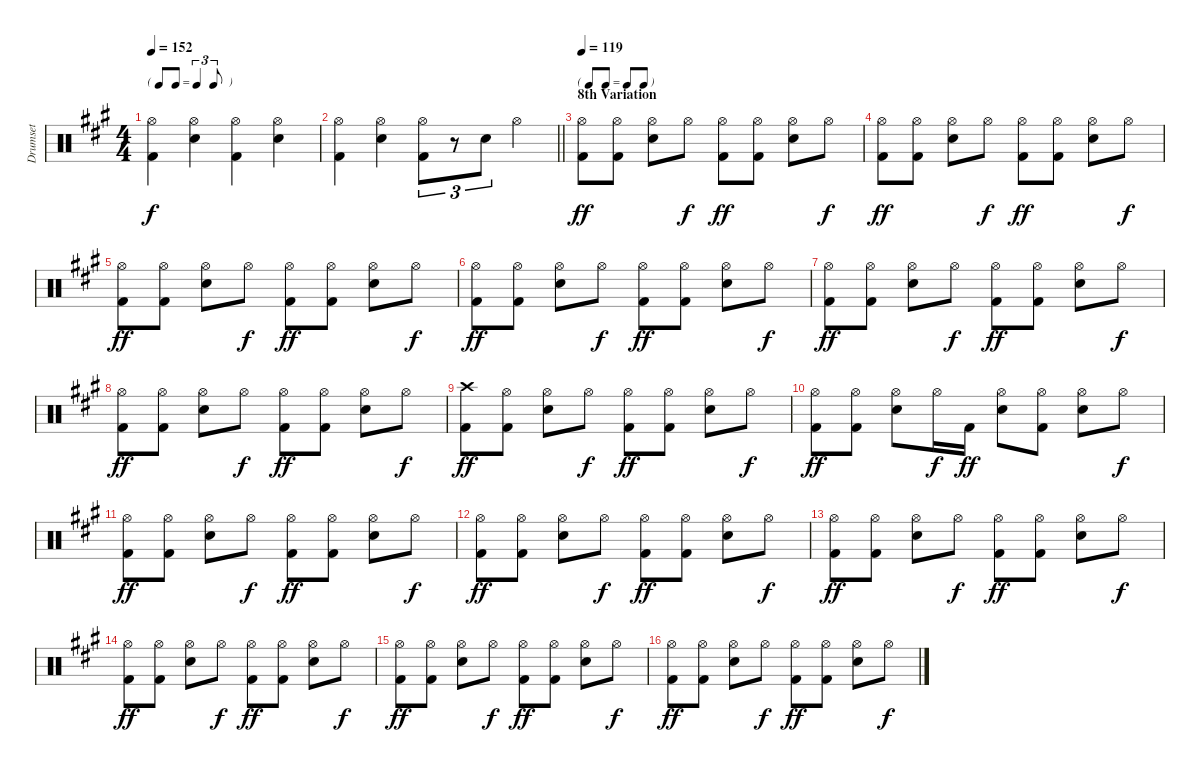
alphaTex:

\track ("Drumset" "Drumset") {instrument percussion}
\staff {score}
\articulation defaults
\ts (4 4)
\tf triplet8th
\tempo 152
\clef neutral
\ks a
("Hi-Hat (open)" "Kick (hit) 2").4{dy f} ("Hi-Hat (open)" "Electric Snare (hit)").4 ("Hi-Hat (open)" "Kick (hit) 2").4 ("Hi-Hat (open)" "Electric Snare (hit)").4 |
\barLineRight lightlight
("Hi-Hat (open)" "Kick (hit) 2").4 ("Hi-Hat (open)" "Electric Snare (hit)").4 ("Hi-Hat (open)" "Kick (hit) 2").8{tu (3 2)} r.8{tu (3 2)} "Electric Snare (hit)".8{tu (3 2)} "Hi-Hat (open)".4 |
\tf none
\section ("" "8th Variation")
\tempo 119
("Hi-Hat (open)" "Kick (hit) 2").8{dy ff} ("Hi-Hat (open)" "Kick (hit) 2").8 ("Hi-Hat (open)" "Snare (hit) 2").8 "Hi-Hat (open)".8{dy f} ("Hi-Hat (open)" "Kick (hit) 2").8{dy ff} ("Hi-Hat (open)" "Kick (hit) 2").8 ("Hi-Hat (open)" "Snare (hit) 2").8 "Hi-Hat (open)".8{dy f} |
("Hi-Hat (open)" "Kick (hit) 2").8{dy ff} ("Hi-Hat (open)" "Kick (hit) 2").8 ("Hi-Hat (open)" "Snare (hit) 2").8 "Hi-Hat (open)".8{dy f} ("Hi-Hat (open)" "Kick (hit) 2").8{dy ff} ("Hi-Hat (open)" "Kick (hit) 2").8 ("Hi-Hat (open)" "Snare (hit) 2").8 "Hi-Hat (open)".8{dy f} |
("Hi-Hat (open)" "Kick (hit) 2").8{dy ff} ("Hi-Hat (open)" "Kick (hit) 2").8 ("Hi-Hat (open)" "Snare (hit) 2").8 "Hi-Hat (open)".8{dy f} ("Hi-Hat (open)" "Kick (hit) 2").8{dy ff} ("Hi-Hat (open)" "Kick (hit) 2").8 ("Hi-Hat (open)" "Snare (hit) 2").8 "Hi-Hat (open)".8{dy f} |
("Hi-Hat (open)" "Kick (hit) 2").8{dy ff} ("Hi-Hat (open)" "Kick (hit) 2").8 ("Hi-Hat (open)" "Snare (hit) 2").8 "Hi-Hat (open)".8{dy f} ("Hi-Hat (open)" "Kick (hit) 2").8{dy ff} ("Hi-Hat (open)" "Kick (hit) 2").8 ("Hi-Hat (open)" "Snare (hit) 2").8 "Hi-Hat (open)".8{dy f} |
("Hi-Hat (open)" "Kick (hit) 2").8{dy ff} ("Hi-Hat (open)" "Kick (hit) 2").8 ("Hi-Hat (open)" "Snare (hit) 2").8 "Hi-Hat (open)".8{dy f} ("Hi-Hat (open)" "Kick (hit) 2").8{dy ff} ("Hi-Hat (open)" "Kick (hit) 2").8 ("Hi-Hat (open)" "Snare (hit) 2").8 "Hi-Hat (open)".8{dy f} |
("Hi-Hat (open)" "Kick (hit) 2").8{dy ff} ("Hi-Hat (open)" "Kick (hit) 2").8 ("Hi-Hat (open)" "Snare (hit) 2").8 "Hi-Hat (open)".8{dy f} ("Hi-Hat (open)" "Kick (hit) 2").8{dy ff} ("Hi-Hat (open)" "Kick (hit) 2").8 ("Hi-Hat (open)" "Snare (hit) 2").8 "Hi-Hat (open)".8{dy f} |
("Crash high (hit)" "Kick (hit) 2").8{dy ff} ("Hi-Hat (open)" "Kick (hit) 2").8 ("Hi-Hat (open)" "Snare (hit) 2").8 "Hi-Hat (open)".8{dy f} ("Hi-Hat (open)" "Kick (hit) 2").8{dy ff} ("Hi-Hat (open)" "Kick (hit) 2").8 ("Hi-Hat (open)" "Snare (hit) 2").8 "Hi-Hat (open)".8{dy f} |
("Hi-Hat (open)" "Kick (hit) 2").8{dy ff} ("Hi-Hat (open)" "Kick (hit) 2").8 ("Hi-Hat (open)" "Snare (hit) 2").8 "Hi-Hat (open)".16{dy f} "Kick (hit) 2".16{dy ff} ("Hi-Hat (open)" "Snare (hit) 2").8 ("Hi-Hat (open)" "Kick (hit) 2").8 ("Hi-Hat (open)" "Snare (hit) 2").8 "Hi-Hat (open)".8{dy f} |
("Hi-Hat (open)" "Kick (hit) 2").8{dy ff} ("Hi-Hat (open)" "Kick (hit) 2").8 ("Hi-Hat (open)" "Snare (hit) 2").8 "Hi-Hat (open)".8{dy f} ("Hi-Hat (open)" "Kick (hit) 2").8{dy ff} ("Hi-Hat (open)" "Kick (hit) 2").8 ("Hi-Hat (open)" "Snare (hit) 2").8 "Hi-Hat (open)".8{dy f} |
("Hi-Hat (open)" "Kick (hit) 2").8{dy ff} ("Hi-Hat (open)" "Kick (hit) 2").8 ("Hi-Hat (open)" "Snare (hit) 2").8 "Hi-Hat (open)".8{dy f} ("Hi-Hat (open)" "Kick (hit) 2").8{dy ff} ("Hi-Hat (open)" "Kick (hit) 2").8 ("Hi-Hat (open)" "Snare (hit) 2").8 "Hi-Hat (open)".8{dy f} |
("Hi-Hat (open)" "Kick (hit) 2").8{dy ff} ("Hi-Hat (open)" "Kick (hit) 2").8 ("Hi-Hat (open)" "Snare (hit) 2").8 "Hi-Hat (open)".8{dy f} ("Hi-Hat (open)" "Kick (hit) 2").8{dy ff} ("Hi-Hat (open)" "Kick (hit) 2").8 ("Hi-Hat (open)" "Snare (hit) 2").8 "Hi-Hat (open)".8{dy f} |
("Hi-Hat (open)" "Kick (hit) 2").8{dy ff} ("Hi-Hat (open)" "Kick (hit) 2").8 ("Hi-Hat (open)" "Snare (hit) 2").8 "Hi-Hat (open)".8{dy f} ("Hi-Hat (open)" "Kick (hit) 2").8{dy ff} ("Hi-Hat (open)" "Kick (hit) 2").8 ("Hi-Hat (open)" "Snare (hit) 2").8 "Hi-Hat (open)".8{dy f} |
("Hi-Hat (open)" "Kick (hit) 2").8{dy ff} ("Hi-Hat (open)" "Kick (hit) 2").8 ("Hi-Hat (open)" "Snare (hit) 2").8 "Hi-Hat (open)".8{dy f} ("Hi-Hat (open)" "Kick (hit) 2").8{dy ff} ("Hi-Hat (open)" "Kick (hit) 2").8 ("Hi-Hat (open)" "Snare (hit) 2").8 "Hi-Hat (open)".8{dy f} |
("Hi-Hat (open)" "Kick (hit) 2").8{dy ff} ("Hi-Hat (open)" "Kick (hit) 2").8 ("Hi-Hat (open)" "Snare (hit) 2").8 "Hi-Hat (open)".8{dy f} ("Hi-Hat (open)" "Kick (hit) 2").8{dy ff} ("Hi-Hat (open)" "Kick (hit) 2").8 ("Hi-Hat (open)" "Snare (hit) 2").8 "Hi-Hat (open)".8{dy f}
